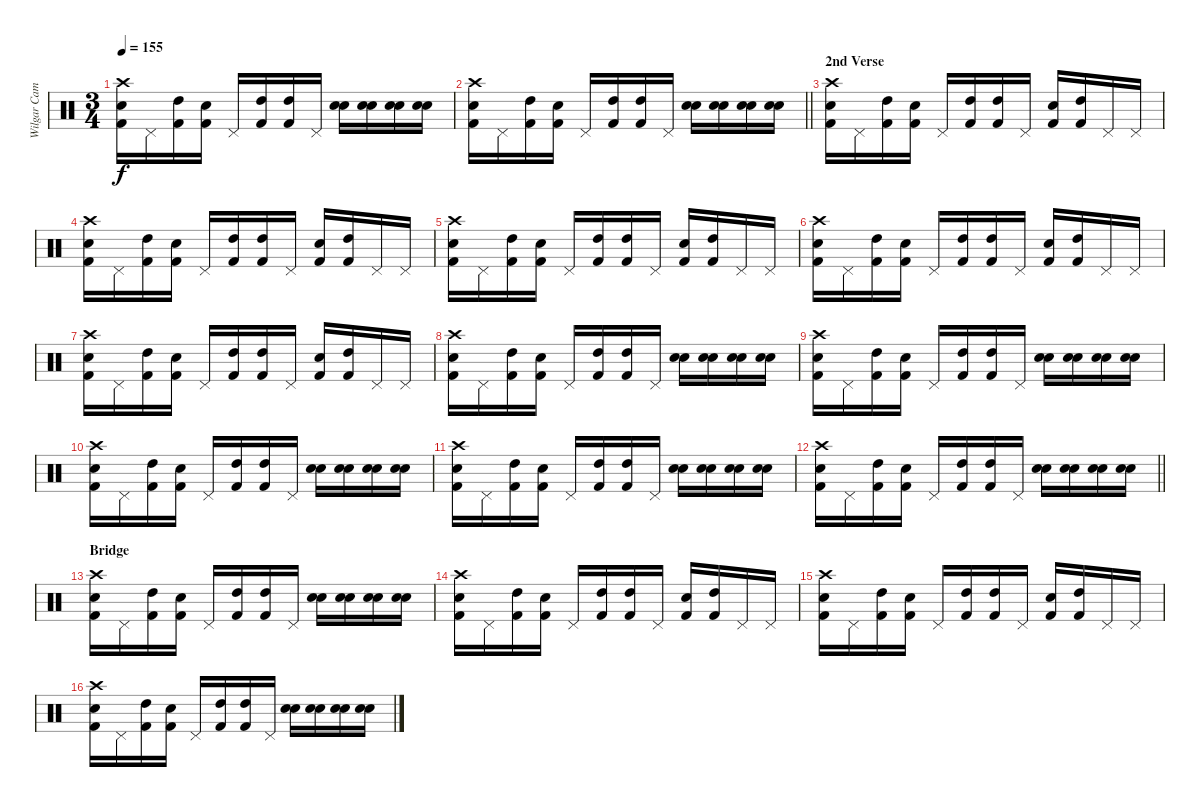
\track ("Wilgar Campbell" "Wilgar Cam") {instrument percussion}
\staff {score}
\articulation defaults
\ts (3 4)
\tempo 155
\clef neutral
\ks c
("Kick (hit) 2" "Snare (hit) 2" "Crash high (hit)").16{dy f} "Pedal Hi-Hat (hit)".16 ("Kick (hit) 2" "High Tom (hit)").16 ("Kick (hit) 2" "Snare (hit) 2").16 "Pedal Hi-Hat (hit)".16 ("High Tom (hit)" "Kick (hit) 2").16 ("High Tom (hit)" "Kick (hit) 2").16 "Pedal Hi-Hat (hit)".16 ("Electric Snare (hit)" "Electric Snare (hit)").16 ("Electric Snare (hit)" "Electric Snare (hit)").16 ("Electric Snare (hit)" "Electric Snare (hit)").16 ("Electric Snare (hit)" "Electric Snare (hit)").16 |
\barLineRight lightlight
("Kick (hit) 2" "Snare (hit) 2" "Crash high (hit)").16 "Pedal Hi-Hat (hit)".16 ("Kick (hit) 2" "High Tom (hit)").16 ("Kick (hit) 2" "Snare (hit) 2").16 "Pedal Hi-Hat (hit)".16 ("High Tom (hit)" "Kick (hit) 2").16 ("High Tom (hit)" "Kick (hit) 2").16 "Pedal Hi-Hat (hit)".16 ("Electric Snare (hit)" "Electric Snare (hit)").16 ("Electric Snare (hit)" "Electric Snare (hit)").16 ("Electric Snare (hit)" "Electric Snare (hit)").16 ("Electric Snare (hit)" "Electric Snare (hit)").16 |
\section ("" "2nd Verse")
("Kick (hit) 2" "Snare (hit) 2" "Crash high (hit)").16 "Pedal Hi-Hat (hit)".16 ("Kick (hit) 2" "High Tom (hit)").16 ("Kick (hit) 2" "Snare (hit) 2").16 "Pedal Hi-Hat (hit)".16 ("High Tom (hit)" "Kick (hit) 2").16 ("High Tom (hit)" "Kick (hit) 2").16 "Pedal Hi-Hat (hit)".16 ("Electric Snare (hit)" "Kick (hit) 2").16 ("High Tom (hit)" "Kick (hit) 2").16 "Pedal Hi-Hat (hit)".16 "Pedal Hi-Hat (hit)".16 |
("Kick (hit) 2" "Snare (hit) 2" "Crash high (hit)").16 "Pedal Hi-Hat (hit)".16 ("Kick (hit) 2" "High Tom (hit)").16 ("Kick (hit) 2" "Snare (hit) 2").16 "Pedal Hi-Hat (hit)".16 ("High Tom (hit)" "Kick (hit) 2").16 ("High Tom (hit)" "Kick (hit) 2").16 "Pedal Hi-Hat (hit)".16 ("Electric Snare (hit)" "Kick (hit) 2").16 ("High Tom (hit)" "Kick (hit) 2").16 "Pedal Hi-Hat (hit)".16 "Pedal Hi-Hat (hit)".16 |
("Kick (hit) 2" "Snare (hit) 2" "Crash high (hit)").16 "Pedal Hi-Hat (hit)".16 ("Kick (hit) 2" "High Tom (hit)").16 ("Kick (hit) 2" "Snare (hit) 2").16 "Pedal Hi-Hat (hit)".16 ("High Tom (hit)" "Kick (hit) 2").16 ("High Tom (hit)" "Kick (hit) 2").16 "Pedal Hi-Hat (hit)".16 ("Electric Snare (hit)" "Kick (hit) 2").16 ("High Tom (hit)" "Kick (hit) 2").16 "Pedal Hi-Hat (hit)".16 "Pedal Hi-Hat (hit)".16 |
("Kick (hit) 2" "Snare (hit) 2" "Crash high (hit)").16 "Pedal Hi-Hat (hit)".16 ("Kick (hit) 2" "High Tom (hit)").16 ("Kick (hit) 2" "Snare (hit) 2").16 "Pedal Hi-Hat (hit)".16 ("High Tom (hit)" "Kick (hit) 2").16 ("High Tom (hit)" "Kick (hit) 2").16 "Pedal Hi-Hat (hit)".16 ("Electric Snare (hit)" "Kick (hit) 2").16 ("High Tom (hit)" "Kick (hit) 2").16 "Pedal Hi-Hat (hit)".16 "Pedal Hi-Hat (hit)".16 |
("Kick (hit) 2" "Snare (hit) 2" "Crash high (hit)").16 "Pedal Hi-Hat (hit)".16 ("Kick (hit) 2" "High Tom (hit)").16 ("Kick (hit) 2" "Snare (hit) 2").16 "Pedal Hi-Hat (hit)".16 ("High Tom (hit)" "Kick (hit) 2").16 ("High Tom (hit)" "Kick (hit) 2").16 "Pedal Hi-Hat (hit)".16 ("Electric Snare (hit)" "Kick (hit) 2").16 ("High Tom (hit)" "Kick (hit) 2").16 "Pedal Hi-Hat (hit)".16 "Pedal Hi-Hat (hit)".16 |
("Kick (hit) 2" "Snare (hit) 2" "Crash high (hit)").16 "Pedal Hi-Hat (hit)".16 ("Kick (hit) 2" "High Tom (hit)").16 ("Kick (hit) 2" "Snare (hit) 2").16 "Pedal Hi-Hat (hit)".16 ("High Tom (hit)" "Kick (hit) 2").16 ("High Tom (hit)" "Kick (hit) 2").16 "Pedal Hi-Hat (hit)".16 ("Electric Snare (hit)" "Electric Snare (hit)").16 ("Electric Snare (hit)" "Electric Snare (hit)").16 ("Electric Snare (hit)" "Electric Snare (hit)").16 ("Electric Snare (hit)" "Electric Snare (hit)").16 |
("Kick (hit) 2" "Snare (hit) 2" "Crash high (hit)").16 "Pedal Hi-Hat (hit)".16 ("Kick (hit) 2" "High Tom (hit)").16 ("Kick (hit) 2" "Snare (hit) 2").16 "Pedal Hi-Hat (hit)".16 ("High Tom (hit)" "Kick (hit) 2").16 ("High Tom (hit)" "Kick (hit) 2").16 "Pedal Hi-Hat (hit)".16 ("Electric Snare (hit)" "Electric Snare (hit)").16 ("Electric Snare (hit)" "Electric Snare (hit)").16 ("Electric Snare (hit)" "Electric Snare (hit)").16 ("Electric Snare (hit)" "Electric Snare (hit)").16 |
("Kick (hit) 2" "Snare (hit) 2" "Crash high (hit)").16 "Pedal Hi-Hat (hit)".16 ("Kick (hit) 2" "High Tom (hit)").16 ("Kick (hit) 2" "Snare (hit) 2").16 "Pedal Hi-Hat (hit)".16 ("High Tom (hit)" "Kick (hit) 2").16 ("High Tom (hit)" "Kick (hit) 2").16 "Pedal Hi-Hat (hit)".16 ("Electric Snare (hit)" "Electric Snare (hit)").16 ("Electric Snare (hit)" "Electric Snare (hit)").16 ("Electric Snare (hit)" "Electric Snare (hit)").16 ("Electric Snare (hit)" "Electric Snare (hit)").16 |
("Kick (hit) 2" "Snare (hit) 2" "Crash high (hit)").16 "Pedal Hi-Hat (hit)".16 ("Kick (hit) 2" "High Tom (hit)").16 ("Kick (hit) 2" "Snare (hit) 2").16 "Pedal Hi-Hat (hit)".16 ("High Tom (hit)" "Kick (hit) 2").16 ("High Tom (hit)" "Kick (hit) 2").16 "Pedal Hi-Hat (hit)".16 ("Electric Snare (hit)" "Electric Snare (hit)").16 ("Electric Snare (hit)" "Electric Snare (hit)").16 ("Electric Snare (hit)" "Electric Snare (hit)").16 ("Electric Snare (hit)" "Electric Snare (hit)").16 |
\barLineRight lightlight
("Kick (hit) 2" "Snare (hit) 2" "Crash high (hit)").16 "Pedal Hi-Hat (hit)".16 ("Kick (hit) 2" "High Tom (hit)").16 ("Kick (hit) 2" "Snare (hit) 2").16 "Pedal Hi-Hat (hit)".16 ("High Tom (hit)" "Kick (hit) 2").16 ("High Tom (hit)" "Kick (hit) 2").16 "Pedal Hi-Hat (hit)".16 ("Electric Snare (hit)" "Electric Snare (hit)").16 ("Electric Snare (hit)" "Electric Snare (hit)").16 ("Electric Snare (hit)" "Electric Snare (hit)").16 ("Electric Snare (hit)" "Electric Snare (hit)").16 |
\section ("" "Bridge")
("Kick (hit) 2" "Snare (hit) 2" "Crash high (hit)").16 "Pedal Hi-Hat (hit)".16 ("Kick (hit) 2" "High Tom (hit)").16 ("Kick (hit) 2" "Snare (hit) 2").16 "Pedal Hi-Hat (hit)".16 ("High Tom (hit)" "Kick (hit) 2").16 ("High Tom (hit)" "Kick (hit) 2").16 "Pedal Hi-Hat (hit)".16 ("Electric Snare (hit)" "Electric Snare (hit)").16 ("Electric Snare (hit)" "Electric Snare (hit)").16 ("Electric Snare (hit)" "Electric Snare (hit)").16 ("Electric Snare (hit)" "Electric Snare (hit)").16 |
("Kick (hit) 2" "Snare (hit) 2" "Crash high (hit)").16 "Pedal Hi-Hat (hit)".16 ("Kick (hit) 2" "High Tom (hit)").16 ("Kick (hit) 2" "Snare (hit) 2").16 "Pedal Hi-Hat (hit)".16 ("High Tom (hit)" "Kick (hit) 2").16 ("High Tom (hit)" "Kick (hit) 2").16 "Pedal Hi-Hat (hit)".16 ("Electric Snare (hit)" "Kick (hit) 2").16 ("High Tom (hit)" "Kick (hit) 2").16 "Pedal Hi-Hat (hit)".16 "Pedal Hi-Hat (hit)".16 |
("Kick (hit) 2" "Snare (hit) 2" "Crash high (hit)").16 "Pedal Hi-Hat (hit)".16 ("Kick (hit) 2" "High Tom (hit)").16 ("Kick (hit) 2" "Snare (hit) 2").16 "Pedal Hi-Hat (hit)".16 ("High Tom (hit)" "Kick (hit) 2").16 ("High Tom (hit)" "Kick (hit) 2").16 "Pedal Hi-Hat (hit)".16 ("Electric Snare (hit)" "Kick (hit) 2").16 ("High Tom (hit)" "Kick (hit) 2").16 "Pedal Hi-Hat (hit)".16 "Pedal Hi-Hat (hit)".16 |
("Kick (hit) 2" "Snare (hit) 2" "Crash high (hit)").16 "Pedal Hi-Hat (hit)".16 ("Kick (hit) 2" "High Tom (hit)").16 ("Kick (hit) 2" "Snare (hit) 2").16 "Pedal Hi-Hat (hit)".16 ("High Tom (hit)" "Kick (hit) 2").16 ("High Tom (hit)" "Kick (hit) 2").16 "Pedal Hi-Hat (hit)".16 ("Electric Snare (hit)" "Electric Snare (hit)").16 ("Electric Snare (hit)" "Electric Snare (hit)").16 ("Electric Snare (hit)" "Electric Snare (hit)").16 ("Electric Snare (hit)" "Electric Snare (hit)").16
